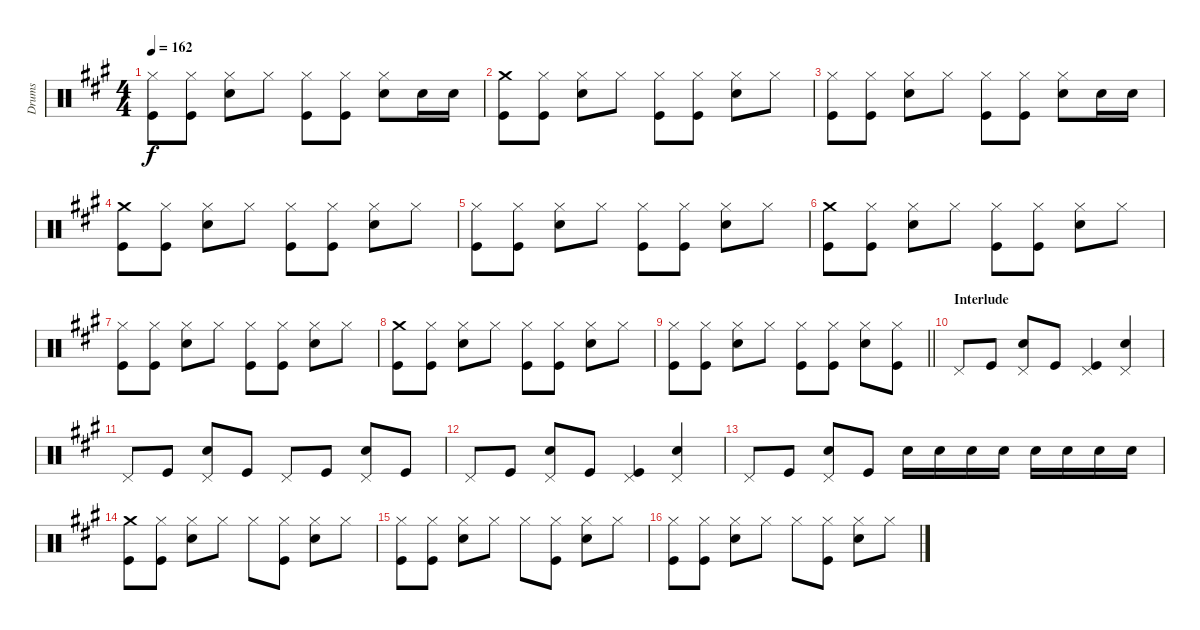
\track ("Drums" "Drums") {instrument percussion}
\staff {score}
\articulation defaults
\ts (4 4)
\tempo 162
\clef neutral
\ks a
("Kick (hit)" "Hi-Hat (closed)").8{dy f} ("Kick (hit)" "Hi-Hat (closed)").8 ("Snare (hit) 2" "Hi-Hat (closed)").8 "Hi-Hat (closed)".8 ("Kick (hit)" "Hi-Hat (closed)").8 ("Kick (hit)" "Hi-Hat (closed)").8 ("Snare (hit) 2" "Hi-Hat (closed)").8 "Snare (hit) 2".16 "Snare (hit) 2".16 |
("Kick (hit)" "Crash medium (hit)").8 ("Kick (hit)" "Hi-Hat (closed)").8 ("Snare (hit) 2" "Hi-Hat (closed)").8 "Hi-Hat (closed)".8 ("Kick (hit)" "Hi-Hat (closed)").8 ("Kick (hit)" "Hi-Hat (closed)").8 ("Snare (hit) 2" "Hi-Hat (closed)").8 "Hi-Hat (closed)".8 |
("Kick (hit)" "Hi-Hat (closed)").8 ("Kick (hit)" "Hi-Hat (closed)").8 ("Snare (hit) 2" "Hi-Hat (closed)").8 "Hi-Hat (closed)".8 ("Kick (hit)" "Hi-Hat (closed)").8 ("Kick (hit)" "Hi-Hat (closed)").8 ("Snare (hit) 2" "Hi-Hat (closed)").8 "Snare (hit) 2".16 "Snare (hit) 2".16 |
("Kick (hit)" "Crash medium (hit)").8 ("Kick (hit)" "Hi-Hat (closed)").8 ("Snare (hit) 2" "Hi-Hat (closed)").8 "Hi-Hat (closed)".8 ("Kick (hit)" "Hi-Hat (closed)").8 ("Kick (hit)" "Hi-Hat (closed)").8 ("Snare (hit) 2" "Hi-Hat (closed)").8 "Hi-Hat (closed)".8 |
("Kick (hit)" "Hi-Hat (closed)").8 ("Kick (hit)" "Hi-Hat (closed)").8 ("Snare (hit) 2" "Hi-Hat (closed)").8 "Hi-Hat (closed)".8 ("Kick (hit)" "Hi-Hat (closed)").8 ("Kick (hit)" "Hi-Hat (closed)").8 ("Snare (hit) 2" "Hi-Hat (closed)").8 "Hi-Hat (closed)".8 |
("Kick (hit)" "Crash medium (hit)").8 ("Kick (hit)" "Hi-Hat (closed)").8 ("Snare (hit) 2" "Hi-Hat (closed)").8 "Hi-Hat (closed)".8 ("Kick (hit)" "Hi-Hat (closed)").8 ("Kick (hit)" "Hi-Hat (closed)").8 ("Snare (hit) 2" "Hi-Hat (closed)").8 "Hi-Hat (closed)".8 |
("Kick (hit)" "Hi-Hat (closed)").8 ("Kick (hit)" "Hi-Hat (closed)").8 ("Snare (hit) 2" "Hi-Hat (closed)").8 "Hi-Hat (closed)".8 ("Kick (hit)" "Hi-Hat (closed)").8 ("Kick (hit)" "Hi-Hat (closed)").8 ("Snare (hit) 2" "Hi-Hat (closed)").8 "Hi-Hat (closed)".8 |
("Kick (hit)" "Crash medium (hit)").8 ("Kick (hit)" "Hi-Hat (closed)").8 ("Snare (hit) 2" "Hi-Hat (closed)").8 "Hi-Hat (closed)".8 ("Kick (hit)" "Hi-Hat (closed)").8 ("Kick (hit)" "Hi-Hat (closed)").8 ("Snare (hit) 2" "Hi-Hat (closed)").8 "Hi-Hat (closed)".8 |
\barLineRight lightlight
("Kick (hit)" "Hi-Hat (closed)").8 ("Kick (hit)" "Hi-Hat (closed)").8 ("Snare (hit) 2" "Hi-Hat (closed)").8 "Hi-Hat (closed)".8 ("Kick (hit)" "Hi-Hat (closed)").8 ("Kick (hit)" "Hi-Hat (closed)").8 ("Snare (hit) 2" "Hi-Hat (closed)").8 ("Hi-Hat (closed)" "Kick (hit)").8 |
\section ("" "Interlude")
"Pedal Hi-Hat (hit)".8 "Kick (hit)".8 ("Snare (hit) 2" "Pedal Hi-Hat (hit)").8 "Kick (hit)".8 ("Kick (hit)" "Pedal Hi-Hat (hit)").4 ("Snare (hit) 2" "Pedal Hi-Hat (hit)").4 |
"Pedal Hi-Hat (hit)".8 "Kick (hit)".8 ("Snare (hit) 2" "Pedal Hi-Hat (hit)").8 "Kick (hit)".8 "Pedal Hi-Hat (hit)".8 "Kick (hit)".8 ("Snare (hit) 2" "Pedal Hi-Hat (hit)").8 "Kick (hit)".8 |
"Pedal Hi-Hat (hit)".8 "Kick (hit)".8 ("Snare (hit) 2" "Pedal Hi-Hat (hit)").8 "Kick (hit)".8 ("Kick (hit)" "Pedal Hi-Hat (hit)").4 ("Snare (hit) 2" "Pedal Hi-Hat (hit)").4 |
"Pedal Hi-Hat (hit)".8 "Kick (hit)".8 ("Snare (hit) 2" "Pedal Hi-Hat (hit)").8 "Kick (hit)".8 "Snare (hit) 2".16 "Snare (hit) 2".16 "Snare (hit) 2".16 "Snare (hit) 2".16 "Snare (hit) 2".16 "Snare (hit) 2".16 "Snare (hit) 2".16 "Snare (hit) 2".16 |
("Kick (hit)" "Crash medium (hit)").8 ("Kick (hit)" "Hi-Hat (closed)").8 ("Snare (hit) 2" "Hi-Hat (closed)").8 "Hi-Hat (closed)".8 "Hi-Hat (closed)".8 ("Kick (hit)" "Hi-Hat (closed)").8 ("Snare (hit) 2" "Hi-Hat (closed)").8 "Hi-Hat (closed)".8 |
("Kick (hit)" "Hi-Hat (closed)").8 ("Kick (hit)" "Hi-Hat (closed)").8 ("Snare (hit) 2" "Hi-Hat (closed)").8 "Hi-Hat (closed)".8 "Hi-Hat (closed)".8 ("Kick (hit)" "Hi-Hat (closed)").8 ("Snare (hit) 2" "Hi-Hat (closed)").8 "Hi-Hat (closed)".8 |
("Kick (hit)" "Hi-Hat (closed)").8 ("Kick (hit)" "Hi-Hat (closed)").8 ("Snare (hit) 2" "Hi-Hat (closed)").8 "Hi-Hat (closed)".8 "Hi-Hat (closed)".8 ("Kick (hit)" "Hi-Hat (closed)").8 ("Snare (hit) 2" "Hi-Hat (closed)").8 "Hi-Hat (closed)".8
